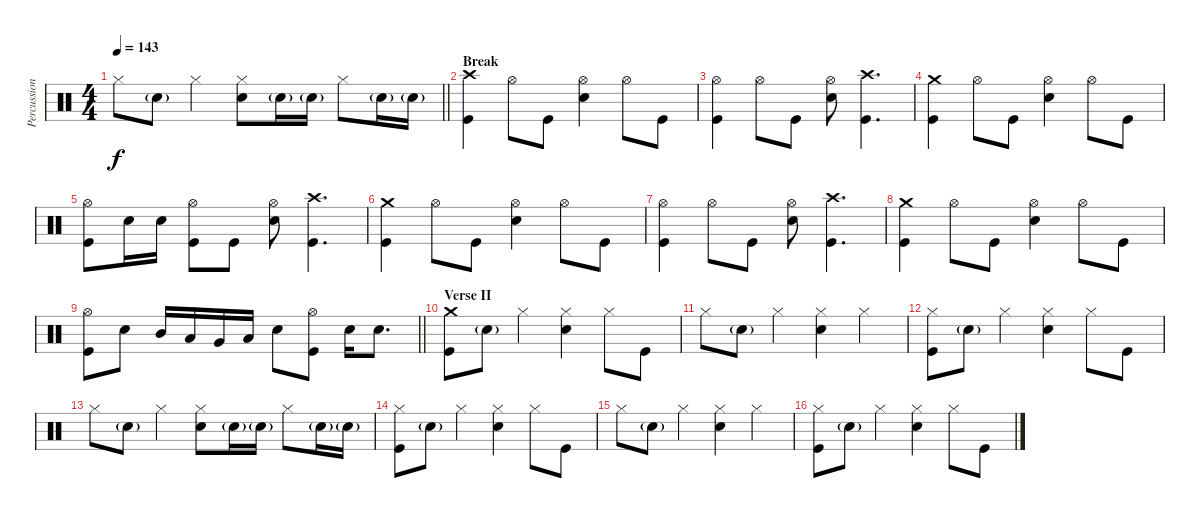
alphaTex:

\track ("Percussion" "Percussion") {instrument percussion}
\staff {score}
\articulation defaults
\ts (4 4)
\tempo 143
\clef neutral
\barLineRight lightlight
\ks c "Hi-Hat (closed)".8{dy f} "Electric Snare (hit)"{g}.8 "Hi-Hat (closed)".4
("Hi-Hat (closed)" "Electric Snare (hit)").8 "Electric Snare (hit)"{g}.16 "Electric Snare (hit)"{g}.16 "Hi-Hat (closed)".8 "Electric Snare (hit)"{g}.16 "Electric Snare (hit)"{g}.16 |
\section ("" "Break")
("Crash high (hit)" "Kick (hit)").4 "Hi-Hat (open)".8 "Kick (hit)".8 ("Hi-Hat (open)" "Electric Snare (hit)").4 "Hi-Hat (open)".8 "Kick (hit)".8 |
("Hi-Hat (open)" "Kick (hit)").4 "Hi-Hat (open)".8 "Kick (hit)".8 ("Hi-Hat (open)" "Electric Snare (hit)").8 ("Crash high (hit)" "Kick (hit)").4{d} |
("Crash medium (hit)" "Kick (hit)").4 "Hi-Hat (open)".8 "Kick (hit)".8 ("Hi-Hat (open)" "Electric Snare (hit)").4 "Hi-Hat (open)".8 "Kick (hit)".8 |
("Hi-Hat (open)" "Kick (hit)").8 "Electric Snare (hit)".16 "Electric Snare (hit)".16 ("Hi-Hat (open)" "Kick (hit)").8 "Kick (hit)".8 ("Hi-Hat (open)" "Electric Snare (hit)").8 ("Crash high (hit)" "Kick (hit)").4{d} |
("Crash medium (hit)" "Kick (hit)").4 "Hi-Hat (open)".8 "Kick (hit)".8 ("Hi-Hat (open)" "Electric Snare (hit)").4 "Hi-Hat (open)".8 "Kick (hit)".8 |
("Hi-Hat (open)" "Kick (hit)").4 "Hi-Hat (open)".8 "Kick (hit)".8 ("Hi-Hat (open)" "Electric Snare (hit)").8 ("Crash high (hit)" "Kick (hit)").4{d} |
("Crash medium (hit)" "Kick (hit)").4 "Hi-Hat (open)".8 "Kick (hit)".8 ("Hi-Hat (open)" "Electric Snare (hit)").4 "Hi-Hat (open)".8 "Kick (hit)".8 |
\barLineRight lightlight
("Hi-Hat (open)" "Kick (hit)").8 "Electric Snare (hit)".8 "Mid Tom (hit)".16 "Low Tom (hit)".16 "Very Low Tom (hit)".16 "Low Floor Tom (hit)".16 "Electric Snare (hit)".8 ("Hi-Hat (open)" "Kick (hit)").8 "Electric Snare (hit)".16 "Electric Snare (hit)".8{d} |
\section ("" "Verse II")
("Crash medium (hit)" "Kick (hit)").8 "Electric Snare (hit)"{g}.8 "Hi-Hat (closed)".4 ("Hi-Hat (closed)" "Electric Snare (hit)").4 "Hi-Hat (closed)".8 "Kick (hit)".8 |
"Hi-Hat (closed)".8 "Electric Snare (hit)"{g}.8 "Hi-Hat (closed)".4 ("Hi-Hat (closed)" "Electric Snare (hit)").4 "Hi-Hat (closed)".4 |
("Hi-Hat (closed)" "Kick (hit)").8 "Electric Snare (hit)"{g}.8 "Hi-Hat (closed)".4 ("Hi-Hat (closed)" "Electric Snare (hit)").4 "Hi-Hat (closed)".8 "Kick (hit)".8 |
"Hi-Hat (closed)".8 "Electric Snare (hit)"{g}.8 "Hi-Hat (closed)".4 ("Hi-Hat (closed)" "Electric Snare (hit)").8 "Electric Snare (hit)"{g}.16 "Electric Snare (hit)"{g}.16 "Hi-Hat (closed)".8 "Electric Snare (hit)"{g}.16 "Electric Snare (hit)"{g}.16 |
("Hi-Hat (closed)" "Kick (hit)").8 "Electric Snare (hit)"{g}.8 "Hi-Hat (closed)".4 ("Hi-Hat (closed)" "Electric Snare (hit)").4 "Hi-Hat (closed)".8 "Kick (hit)".8 |
"Hi-Hat (closed)".8 "Electric Snare (hit)"{g}.8 "Hi-Hat (closed)".4 ("Hi-Hat (closed)" "Electric Snare (hit)").4 "Hi-Hat (closed)".4 |
("Hi-Hat (closed)" "Kick (hit)").8 "Electric Snare (hit)"{g}.8 "Hi-Hat (closed)".4 ("Hi-Hat (closed)" "Electric Snare (hit)").4 "Hi-Hat (closed)".8 "Kick (hit)".8
